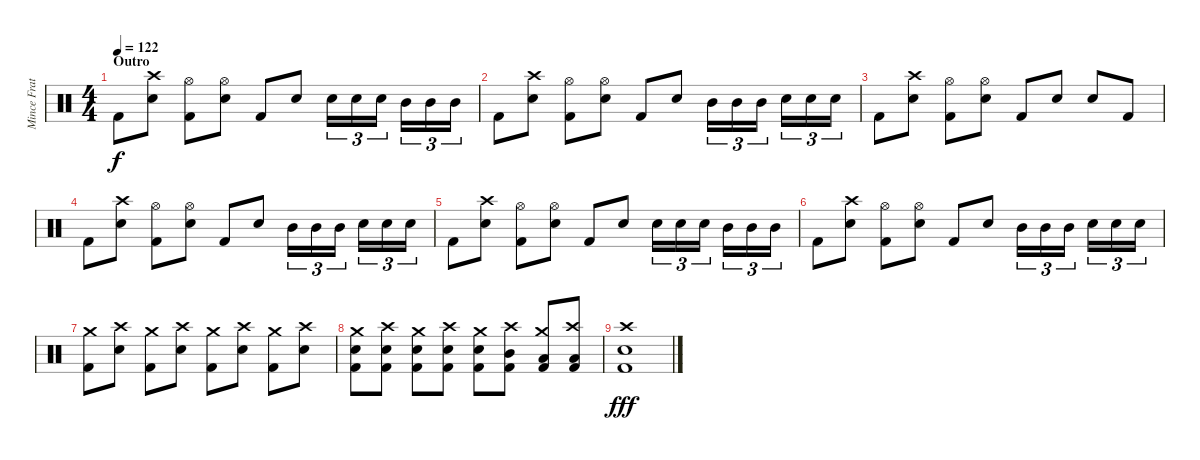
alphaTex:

\track ("Mince Fratelli" "Mince Frat") {instrument percussion}
\staff {score}
\articulation defaults
\ts (4 4)
\section ("" "Outro")
\tempo 122
\clef neutral
\ks c "Kick (hit) 2".8{dy f}
("Crash high (hit)" "Snare (hit) 2").8 ("Hi-Hat (open)" "Kick (hit) 2").8 ("Hi-Hat (open)" "Snare (hit) 2").8 "Kick (hit) 2".8 "Snare (hit) 2".8 "Snare (hit) 2".16{tu (3 2)} "Snare (hit) 2".16{tu (3 2)} "Snare (hit) 2".16{tu (3 2)} "Mid Tom (hit)".16{tu (3 2)} "Mid Tom (hit)".16{tu (3 2)} "Mid Tom (hit)".16{tu (3 2)} |
"Kick (hit) 2".8 ("Crash high (hit)" "Snare (hit) 2").8 ("Hi-Hat (open)" "Kick (hit) 2").8 ("Hi-Hat (open)" "Snare (hit) 2").8 "Kick (hit) 2".8 "Snare (hit) 2".8 "Mid Tom (hit)".16{tu (3 2)} "Mid Tom (hit)".16{tu (3 2)} "Mid Tom (hit)".16{tu (3 2)} "Snare (hit) 2".16{tu (3 2)} "Snare (hit) 2".16{tu (3 2)} "Snare (hit) 2".16{tu (3 2)} |
"Kick (hit) 2".8 ("Crash high (hit)" "Snare (hit) 2").8 ("Hi-Hat (open)" "Kick (hit) 2").8 ("Hi-Hat (open)" "Snare (hit) 2").8 "Kick (hit) 2".8 "Snare (hit) 2".8 "Snare (hit) 2".8 "Kick (hit) 2".8 |
"Kick (hit) 2".8 ("Crash high (hit)" "Snare (hit) 2").8 ("Hi-Hat (open)" "Kick (hit) 2").8 ("Hi-Hat (open)" "Snare (hit) 2").8 "Kick (hit) 2".8 "Snare (hit) 2".8 "Mid Tom (hit)".16{tu (3 2)} "Mid Tom (hit)".16{tu (3 2)} "Mid Tom (hit)".16{tu (3 2)} "Snare (hit) 2".16{tu (3 2)} "Snare (hit) 2".16{tu (3 2)} "Snare (hit) 2".16{tu (3 2)} |
"Kick (hit) 2".8 ("Crash high (hit)" "Snare (hit) 2").8 ("Hi-Hat (open)" "Kick (hit) 2").8 ("Hi-Hat (open)" "Snare (hit) 2").8 "Kick (hit) 2".8 "Snare (hit) 2".8 "Snare (hit) 2".16{tu (3 2)} "Snare (hit) 2".16{tu (3 2)} "Snare (hit) 2".16{tu (3 2)} "Mid Tom (hit)".16{tu (3 2)} "Mid Tom (hit)".16{tu (3 2)} "Mid Tom (hit)".16{tu (3 2)} |
"Kick (hit) 2".8 ("Crash high (hit)" "Snare (hit) 2").8 ("Hi-Hat (open)" "Kick (hit) 2").8 ("Hi-Hat (open)" "Snare (hit) 2").8 "Kick (hit) 2".8 "Snare (hit) 2".8 "Mid Tom (hit)".16{tu (3 2)} "Mid Tom (hit)".16{tu (3 2)} "Mid Tom (hit)".16{tu (3 2)} "Snare (hit) 2".16{tu (3 2)} "Snare (hit) 2".16{tu (3 2)} "Snare (hit) 2".16{tu (3 2)} |
("Crash medium (hit)" "Kick (hit) 2").8 ("Crash high (hit)" "Snare (hit) 2").8 ("Crash medium (hit)" "Kick (hit) 2").8 ("Crash high (hit)" "Snare (hit) 2").8 ("Crash medium (hit)" "Kick (hit) 2").8 ("Crash high (hit)" "Snare (hit) 2").8 ("Crash medium (hit)" "Kick (hit) 2").8 ("Crash high (hit)" "Snare (hit) 2").8 |
("Crash medium (hit)" "Snare (hit) 2" "Kick (hit) 2").8 ("Crash high (hit)" "Snare (hit) 2" "Kick (hit) 2").8 ("Crash medium (hit)" "Snare (hit) 2" "Kick (hit) 2").8 ("Crash high (hit)" "Snare (hit) 2" "Kick (hit) 2").8 ("Crash medium (hit)" "Snare (hit) 2" "Kick (hit) 2").8 ("Crash high (hit)" "Mid Tom (hit)" "Kick (hit) 2").8 ("Crash medium (hit)" "Low Tom (hit)" "Kick (hit) 2").8 ("Crash high (hit)" "Low Tom (hit)" "Kick (hit) 2").8 |
("Crash high (hit)" "Snare (hit) 2" "Kick (hit) 2").1{dy fff}
